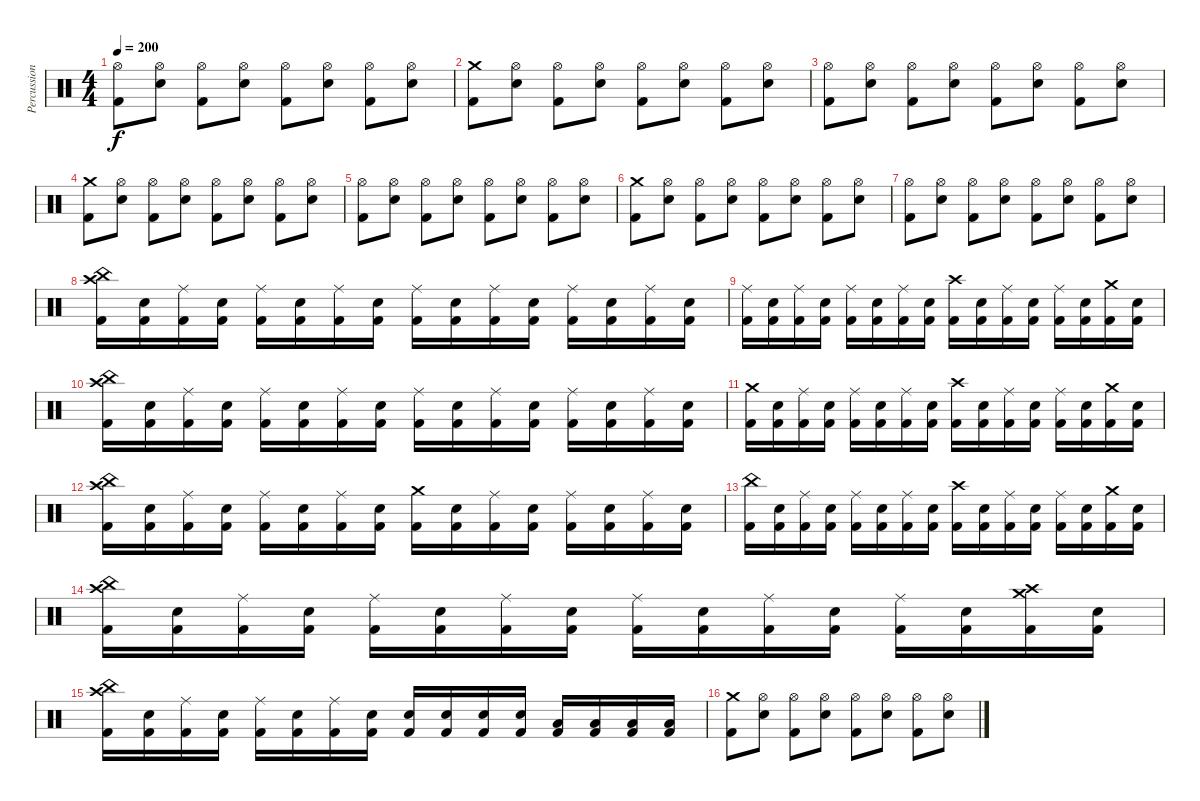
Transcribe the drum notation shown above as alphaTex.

\track ("Percussion" "Percussion") {instrument percussion}
\staff
\articulation defaults
\ts (4 4)
\tempo 200
\clef neutral
\ks c
("Hi-Hat (open)" "Kick (hit) 2").8{dy f} ("Hi-Hat (open)" "Electric Snare (hit)").8 ("Hi-Hat (open)" "Kick (hit) 2").8 ("Hi-Hat (open)" "Electric Snare (hit)").8 ("Hi-Hat (open)" "Kick (hit) 2").8 ("Hi-Hat (open)" "Electric Snare (hit)").8 ("Hi-Hat (open)" "Kick (hit) 2").8 ("Hi-Hat (open)" "Electric Snare (hit)").8 |
("Crash medium (hit)" "Kick (hit) 2").8 ("Hi-Hat (open)" "Electric Snare (hit)").8 ("Hi-Hat (open)" "Kick (hit) 2").8 ("Hi-Hat (open)" "Electric Snare (hit)").8 ("Hi-Hat (open)" "Kick (hit) 2").8 ("Hi-Hat (open)" "Electric Snare (hit)").8 ("Hi-Hat (open)" "Kick (hit) 2").8 ("Hi-Hat (open)" "Electric Snare (hit)").8 |
("Hi-Hat (open)" "Kick (hit) 2").8 ("Hi-Hat (open)" "Electric Snare (hit)").8 ("Hi-Hat (open)" "Kick (hit) 2").8 ("Hi-Hat (open)" "Electric Snare (hit)").8 ("Hi-Hat (open)" "Kick (hit) 2").8 ("Hi-Hat (open)" "Electric Snare (hit)").8 ("Hi-Hat (open)" "Kick (hit) 2").8 ("Hi-Hat (open)" "Electric Snare (hit)").8 |
("Crash medium (hit)" "Kick (hit) 2").8 ("Hi-Hat (open)" "Electric Snare (hit)").8 ("Hi-Hat (open)" "Kick (hit) 2").8 ("Hi-Hat (open)" "Electric Snare (hit)").8 ("Hi-Hat (open)" "Kick (hit) 2").8 ("Hi-Hat (open)" "Electric Snare (hit)").8 ("Hi-Hat (open)" "Kick (hit) 2").8 ("Hi-Hat (open)" "Electric Snare (hit)").8 |
("Hi-Hat (open)" "Kick (hit) 2").8 ("Hi-Hat (open)" "Electric Snare (hit)").8 ("Hi-Hat (open)" "Kick (hit) 2").8 ("Hi-Hat (open)" "Electric Snare (hit)").8 ("Hi-Hat (open)" "Kick (hit) 2").8 ("Hi-Hat (open)" "Electric Snare (hit)").8 ("Hi-Hat (open)" "Kick (hit) 2").8 ("Hi-Hat (open)" "Electric Snare (hit)").8 |
("Crash medium (hit)" "Kick (hit) 2").8 ("Hi-Hat (open)" "Electric Snare (hit)").8 ("Hi-Hat (open)" "Kick (hit) 2").8 ("Hi-Hat (open)" "Electric Snare (hit)").8 ("Hi-Hat (open)" "Kick (hit) 2").8 ("Hi-Hat (open)" "Electric Snare (hit)").8 ("Hi-Hat (open)" "Kick (hit) 2").8 ("Hi-Hat (open)" "Electric Snare (hit)").8 |
("Hi-Hat (open)" "Kick (hit) 2").8 ("Hi-Hat (open)" "Electric Snare (hit)").8 ("Hi-Hat (open)" "Kick (hit) 2").8 ("Hi-Hat (open)" "Electric Snare (hit)").8 ("Hi-Hat (open)" "Kick (hit) 2").8 ("Hi-Hat (open)" "Electric Snare (hit)").8 ("Hi-Hat (open)" "Kick (hit) 2").8 ("Hi-Hat (open)" "Electric Snare (hit)").8 |
("China (hit)" "Crash high (hit)" "Kick (hit) 2").16 ("Electric Snare (hit)" "Kick (hit) 2").16 ("Ride (middle)" "Kick (hit) 2").16 ("Electric Snare (hit)" "Kick (hit) 2").16 ("Ride (middle)" "Kick (hit) 2").16 ("Electric Snare (hit)" "Kick (hit) 2").16 ("Ride (middle)" "Kick (hit) 2").16 ("Electric Snare (hit)" "Kick (hit) 2").16 ("Ride (middle)" "Kick (hit) 2").16 ("Electric Snare (hit)" "Kick (hit) 2").16 ("Ride (middle)" "Kick (hit) 2").16 ("Electric Snare (hit)" "Kick (hit) 2").16 ("Ride (middle)" "Kick (hit) 2").16 ("Electric Snare (hit)" "Kick (hit) 2").16 ("Ride (middle)" "Kick (hit) 2").16 ("Electric Snare (hit)" "Kick (hit) 2").16 |
("Ride (middle)" "Kick (hit) 2").16 ("Electric Snare (hit)" "Kick (hit) 2").16 ("Ride (middle)" "Kick (hit) 2").16 ("Electric Snare (hit)" "Kick (hit) 2").16 ("Ride (middle)" "Kick (hit) 2").16 ("Electric Snare (hit)" "Kick (hit) 2").16 ("Ride (middle)" "Kick (hit) 2").16 ("Electric Snare (hit)" "Kick (hit) 2").16 ("Crash high (hit)" "Kick (hit) 2").16 ("Electric Snare (hit)" "Kick (hit) 2").16 ("Ride (middle)" "Kick (hit) 2").16 ("Electric Snare (hit)" "Kick (hit) 2").16 ("Ride (middle)" "Kick (hit) 2").16 ("Electric Snare (hit)" "Kick (hit) 2").16 ("Crash medium (hit)" "Kick (hit) 2").16 ("Electric Snare (hit)" "Kick (hit) 2").16 |
("China (hit)" "Crash high (hit)" "Kick (hit) 2").16 ("Electric Snare (hit)" "Kick (hit) 2").16 ("Ride (middle)" "Kick (hit) 2").16 ("Electric Snare (hit)" "Kick (hit) 2").16 ("Ride (middle)" "Kick (hit) 2").16 ("Electric Snare (hit)" "Kick (hit) 2").16 ("Ride (middle)" "Kick (hit) 2").16 ("Electric Snare (hit)" "Kick (hit) 2").16 ("Ride (middle)" "Kick (hit) 2").16 ("Electric Snare (hit)" "Kick (hit) 2").16 ("Ride (middle)" "Kick (hit) 2").16 ("Electric Snare (hit)" "Kick (hit) 2").16 ("Ride (middle)" "Kick (hit) 2").16 ("Electric Snare (hit)" "Kick (hit) 2").16 ("Ride (middle)" "Kick (hit) 2").16 ("Electric Snare (hit)" "Kick (hit) 2").16 |
("Crash medium (hit)" "Kick (hit) 2").16 ("Electric Snare (hit)" "Kick (hit) 2").16 ("Ride (middle)" "Kick (hit) 2").16 ("Electric Snare (hit)" "Kick (hit) 2").16 ("Ride (middle)" "Kick (hit) 2").16 ("Electric Snare (hit)" "Kick (hit) 2").16 ("Ride (middle)" "Kick (hit) 2").16 ("Electric Snare (hit)" "Kick (hit) 2").16 ("Crash high (hit)" "Kick (hit) 2").16 ("Electric Snare (hit)" "Kick (hit) 2").16 ("Ride (middle)" "Kick (hit) 2").16 ("Electric Snare (hit)" "Kick (hit) 2").16 ("Ride (middle)" "Kick (hit) 2").16 ("Electric Snare (hit)" "Kick (hit) 2").16 ("Crash medium (hit)" "Kick (hit) 2").16 ("Electric Snare (hit)" "Kick (hit) 2").16 |
("China (hit)" "Crash high (hit)" "Kick (hit) 2").16 ("Electric Snare (hit)" "Kick (hit) 2").16 ("Ride (middle)" "Kick (hit) 2").16 ("Electric Snare (hit)" "Kick (hit) 2").16 ("Ride (middle)" "Kick (hit) 2").16 ("Electric Snare (hit)" "Kick (hit) 2").16 ("Ride (middle)" "Kick (hit) 2").16 ("Electric Snare (hit)" "Kick (hit) 2").16 ("Crash medium (hit)" "Kick (hit) 2").16 ("Electric Snare (hit)" "Kick (hit) 2").16 ("Ride (middle)" "Kick (hit) 2").16 ("Electric Snare (hit)" "Kick (hit) 2").16 ("Ride (middle)" "Kick (hit) 2").16 ("Electric Snare (hit)" "Kick (hit) 2").16 ("Ride (middle)" "Kick (hit) 2").16 ("Electric Snare (hit)" "Kick (hit) 2").16 |
("China (hit)" "Kick (hit) 2").16 ("Electric Snare (hit)" "Kick (hit) 2").16 ("Ride (middle)" "Kick (hit) 2").16 ("Electric Snare (hit)" "Kick (hit) 2").16 ("Ride (middle)" "Kick (hit) 2").16 ("Electric Snare (hit)" "Kick (hit) 2").16 ("Ride (middle)" "Kick (hit) 2").16 ("Electric Snare (hit)" "Kick (hit) 2").16 ("Crash high (hit)" "Kick (hit) 2").16 ("Electric Snare (hit)" "Kick (hit) 2").16 ("Ride (middle)" "Kick (hit) 2").16 ("Electric Snare (hit)" "Kick (hit) 2").16 ("Ride (middle)" "Kick (hit) 2").16 ("Electric Snare (hit)" "Kick (hit) 2").16 ("Crash medium (hit)" "Kick (hit) 2").16 ("Electric Snare (hit)" "Kick (hit) 2").16 |
("China (hit)" "Crash high (hit)" "Kick (hit) 2").16 ("Electric Snare (hit)" "Kick (hit) 2").16 ("Ride (middle)" "Kick (hit) 2").16 ("Electric Snare (hit)" "Kick (hit) 2").16 ("Ride (middle)" "Kick (hit) 2").16 ("Electric Snare (hit)" "Kick (hit) 2").16 ("Ride (middle)" "Kick (hit) 2").16 ("Electric Snare (hit)" "Kick (hit) 2").16 ("Ride (middle)" "Kick (hit) 2").16 ("Electric Snare (hit)" "Kick (hit) 2").16 ("Ride (middle)" "Kick (hit) 2").16 ("Electric Snare (hit)" "Kick (hit) 2").16 ("Ride (middle)" "Kick (hit) 2").16 ("Electric Snare (hit)" "Kick (hit) 2").16 ("Crash medium (hit)" "Crash high (hit)" "Kick (hit) 2").16 ("Electric Snare (hit)" "Kick (hit) 2").16 |
("China (hit)" "Crash high (hit)" "Kick (hit) 2").16 ("Electric Snare (hit)" "Kick (hit) 2").16 ("Ride (middle)" "Kick (hit) 2").16 ("Electric Snare (hit)" "Kick (hit) 2").16 ("Ride (middle)" "Kick (hit) 2").16 ("Electric Snare (hit)" "Kick (hit) 2").16 ("Ride (middle)" "Kick (hit) 2").16 ("Electric Snare (hit)" "Kick (hit) 2").16 ("Electric Snare (hit)" "Kick (hit) 2").16 ("Electric Snare (hit)" "Kick (hit) 2").16 ("Electric Snare (hit)" "Kick (hit) 2").16 ("Electric Snare (hit)" "Kick (hit) 2").16 ("Low Tom (hit)" "Kick (hit) 2").16 ("Low Tom (hit)" "Kick (hit) 2").16 ("Low Tom (hit)" "Kick (hit) 2").16 ("Low Tom (hit)" "Kick (hit) 2").16 |
("Crash medium (hit)" "Kick (hit) 2").8 ("Hi-Hat (open)" "Electric Snare (hit)").8 ("Hi-Hat (open)" "Kick (hit) 2").8 ("Hi-Hat (open)" "Electric Snare (hit)").8 ("Hi-Hat (open)" "Kick (hit) 2").8 ("Hi-Hat (open)" "Electric Snare (hit)").8 ("Hi-Hat (open)" "Kick (hit) 2").8 ("Hi-Hat (open)" "Electric Snare (hit)").8
